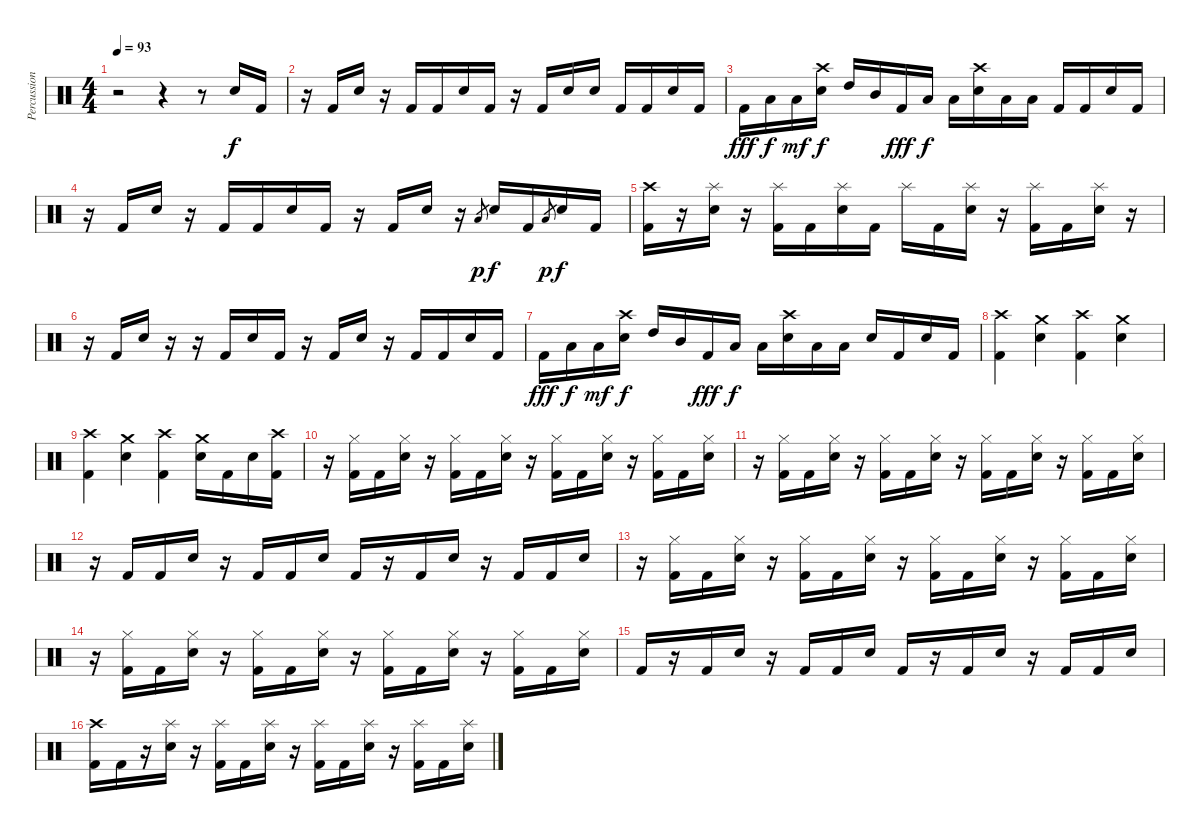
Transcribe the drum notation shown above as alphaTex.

\track ("Percussion" "Percussion") {instrument percussion}
\staff {score}
\articulation defaults
\ts (4 4)
\tempo 93
\clef neutral
\ks c
r.2{dy f} r.4 r.8 "Electric Snare (hit)".16 "Kick (hit) 2".16 |
r.16 "Kick (hit) 2".16 "Electric Snare (hit)".16 r.16 "Kick (hit) 2".16 "Kick (hit) 2".16 "Electric Snare (hit)".16 "Kick (hit) 2".16 r.16 "Kick (hit) 2".16 "Electric Snare (hit)".16 "Electric Snare (hit)".16 "Kick (hit) 2".16 "Kick (hit) 2".16 "Electric Snare (hit)".16 "Kick (hit) 2".16 |
"Kick (hit) 2".16{dy fff} "Low Floor Tom (hit)".16{dy f} "Low Tom (hit)".16{dy mf} ("Crash high (hit)" "Electric Snare (hit)").16{dy f} "High Tom (hit)".16 "Mid Tom (hit)".16 "Kick (hit) 2".16{dy fff} "Low Floor Tom (hit)".16{dy f} "Low Tom (hit)".16 ("Crash high (hit)" "Electric Snare (hit)").16 "Low Floor Tom (hit)".16 "Low Tom (hit)".16 "Kick (hit) 2".16 "Kick (hit) 2".16 "Electric Snare (hit)".16 "Kick (hit) 2".16 |
r.16 "Kick (hit) 2".16 "Electric Snare (hit)".16 r.16 "Kick (hit) 2".16 "Kick (hit) 2".16 "Electric Snare (hit)".16 "Kick (hit) 2".16 r.16 "Kick (hit) 2".16 "Electric Snare (hit)".16 r.16 "Low Tom (hit)".8{gr dy p} "Electric Snare (hit)".16{dy f} "Kick (hit) 2".16 "Low Tom (hit)".8{gr dy p} "Electric Snare (hit)".16{dy f} "Kick (hit) 2".16 |
("Crash high (hit)" "Kick (hit) 2").16 r.16 ("Splash (hit)" "Electric Snare (hit)").16 r.16 ("Splash (hit)" "Kick (hit) 2").16 "Kick (hit) 2".16 ("Splash (hit)" "Electric Snare (hit)").16 "Kick (hit) 2".16 "Splash (hit)".16 "Kick (hit) 2".16 ("Splash (hit)" "Electric Snare (hit)").16 r.16 ("Splash (hit)" "Kick (hit) 2").16 "Kick (hit) 2".16 ("Splash (hit)" "Electric Snare (hit)").16 r.16 |
r.16 "Kick (hit) 2".16 "Electric Snare (hit)".16 r.16 r.16 "Kick (hit) 2".16 "Electric Snare (hit)".16 "Kick (hit) 2".16 r.16 "Kick (hit) 2".16 "Electric Snare (hit)".16 r.16 "Kick (hit) 2".16 "Kick (hit) 2".16 "Electric Snare (hit)".16 "Kick (hit) 2".16 |
"Kick (hit) 2".16{dy fff} "Low Floor Tom (hit)".16{dy f} "Low Tom (hit)".16{dy mf} ("Crash high (hit)" "Electric Snare (hit)").16{dy f} "High Tom (hit)".16 "Mid Tom (hit)".16 "Kick (hit) 2".16{dy fff} "Low Floor Tom (hit)".16{dy f} "Low Tom (hit)".16 ("Crash high (hit)" "Electric Snare (hit)").16 "Low Floor Tom (hit)".16 "Low Tom (hit)".16 "Electric Snare (hit)".16 "Kick (hit) 2".16 "Electric Snare (hit)".16 "Kick (hit) 2".16 |
("Crash high (hit)" "Kick (hit) 2").4 ("Crash medium (hit)" "Electric Snare (hit)").4 ("Crash high (hit)" "Kick (hit) 2").4 ("Crash medium (hit)" "Electric Snare (hit)").4 |
("Crash high (hit)" "Kick (hit) 2").4 ("Crash medium (hit)" "Electric Snare (hit)").4 ("Crash high (hit)" "Kick (hit) 2").4 ("Crash medium (hit)" "Electric Snare (hit)").16 "Kick (hit) 2".16 "Electric Snare (hit)".16 ("Crash high (hit)" "Kick (hit) 2").16 |
r.16 ("Hi-Hat (closed)" "Kick (hit) 2").16 "Kick (hit) 2".16 ("Hi-Hat (closed)" "Electric Snare (hit)").16 r.16 ("Hi-Hat (closed)" "Kick (hit) 2").16 "Kick (hit) 2".16 ("Hi-Hat (closed)" "Electric Snare (hit)").16 r.16 ("Hi-Hat (closed)" "Kick (hit) 2").16 "Kick (hit) 2".16 ("Hi-Hat (closed)" "Electric Snare (hit)").16 r.16 ("Hi-Hat (closed)" "Kick (hit) 2").16 "Kick (hit) 2".16 ("Hi-Hat (closed)" "Electric Snare (hit)").16 |
r.16 ("Hi-Hat (closed)" "Kick (hit) 2").16 "Kick (hit) 2".16 ("Hi-Hat (closed)" "Electric Snare (hit)").16 r.16 ("Hi-Hat (closed)" "Kick (hit) 2").16 "Kick (hit) 2".16 ("Hi-Hat (closed)" "Electric Snare (hit)").16 r.16 ("Hi-Hat (closed)" "Kick (hit) 2").16 "Kick (hit) 2".16 ("Hi-Hat (closed)" "Electric Snare (hit)").16 r.16 ("Hi-Hat (closed)" "Kick (hit) 2").16 "Kick (hit) 2".16 ("Hi-Hat (closed)" "Electric Snare (hit)").16 |
r.16 "Kick (hit) 2".16 "Kick (hit) 2".16 "Electric Snare (hit)".16 r.16 "Kick (hit) 2".16 "Kick (hit) 2".16 "Electric Snare (hit)".16 "Kick (hit) 2".16 r.16 "Kick (hit) 2".16 "Electric Snare (hit)".16 r.16 "Kick (hit) 2".16 "Kick (hit) 2".16 "Electric Snare (hit)".16 |
r.16 ("Hi-Hat (closed)" "Kick (hit) 2").16 "Kick (hit) 2".16 ("Hi-Hat (closed)" "Electric Snare (hit)").16 r.16 ("Hi-Hat (closed)" "Kick (hit) 2").16 "Kick (hit) 2".16 ("Hi-Hat (closed)" "Electric Snare (hit)").16 r.16 ("Hi-Hat (closed)" "Kick (hit) 2").16 "Kick (hit) 2".16 ("Hi-Hat (closed)" "Electric Snare (hit)").16 r.16 ("Hi-Hat (closed)" "Kick (hit) 2").16 "Kick (hit) 2".16 ("Hi-Hat (closed)" "Electric Snare (hit)").16 |
r.16 ("Hi-Hat (closed)" "Kick (hit) 2").16 "Kick (hit) 2".16 ("Hi-Hat (closed)" "Electric Snare (hit)").16 r.16 ("Hi-Hat (closed)" "Kick (hit) 2").16 "Kick (hit) 2".16 ("Hi-Hat (closed)" "Electric Snare (hit)").16 r.16 ("Hi-Hat (closed)" "Kick (hit) 2").16 "Kick (hit) 2".16 ("Hi-Hat (closed)" "Electric Snare (hit)").16 r.16 ("Hi-Hat (closed)" "Kick (hit) 2").16 "Kick (hit) 2".16 ("Hi-Hat (closed)" "Electric Snare (hit)").16 |
"Kick (hit) 2".16 r.16 "Kick (hit) 2".16 "Electric Snare (hit)".16 r.16 "Kick (hit) 2".16 "Kick (hit) 2".16 "Electric Snare (hit)".16 "Kick (hit) 2".16 r.16 "Kick (hit) 2".16 "Electric Snare (hit)".16 r.16 "Kick (hit) 2".16 "Kick (hit) 2".16 "Electric Snare (hit)".16 |
("Crash high (hit)" "Kick (hit) 2").16 "Kick (hit) 2".16 r.16 ("Splash (hit)" "Electric Snare (hit)").16 r.16 ("Splash (hit)" "Kick (hit) 2").16 "Kick (hit) 2".16 ("Splash (hit)" "Electric Snare (hit)").16 r.16 ("Splash (hit)" "Kick (hit) 2").16 "Kick (hit) 2".16 ("Splash (hit)" "Electric Snare (hit)").16 r.16 ("Splash (hit)" "Kick (hit) 2").16 "Kick (hit) 2".16 ("Splash (hit)" "Electric Snare (hit)").16
